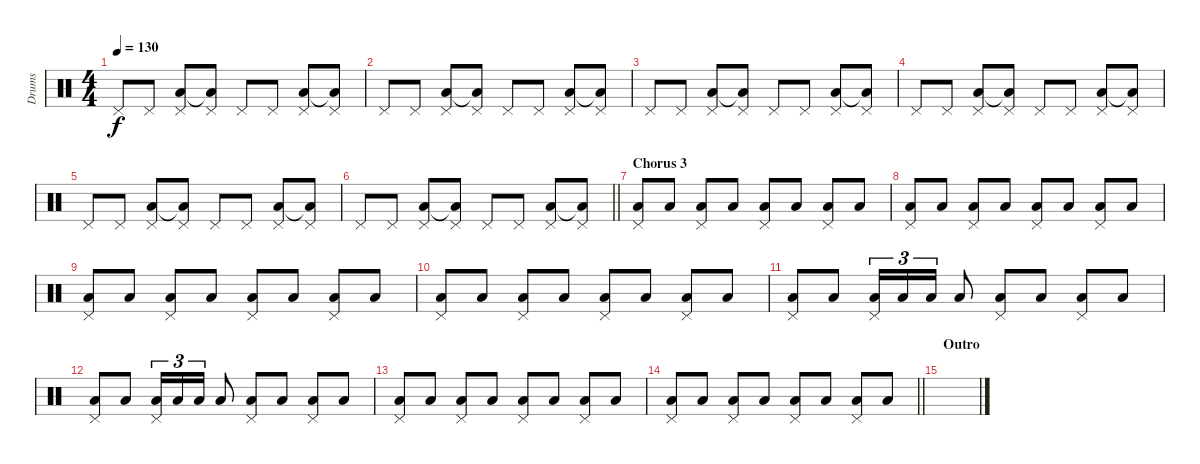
\track ("Drums" "Drums") {instrument percussion}
\staff {score}
\articulation defaults
\ts (4 4)
\tempo 130
\clef neutral
\ks c "Pedal Hi-Hat (hit)".8{dy f} "Pedal Hi-Hat (hit)".8
("Pedal Hi-Hat (hit)" "Low Floor Tom (hit)").8 ("Pedal Hi-Hat (hit)" "Low Floor Tom (hit)"{t}).8 "Pedal Hi-Hat (hit)".8 "Pedal Hi-Hat (hit)".8 ("Pedal Hi-Hat (hit)" "Low Floor Tom (hit)").8 ("Pedal Hi-Hat (hit)" "Low Floor Tom (hit)"{t}).8 |
"Pedal Hi-Hat (hit)".8 "Pedal Hi-Hat (hit)".8 ("Pedal Hi-Hat (hit)" "Low Floor Tom (hit)").8 ("Pedal Hi-Hat (hit)" "Low Floor Tom (hit)"{t}).8 "Pedal Hi-Hat (hit)".8 "Pedal Hi-Hat (hit)".8 ("Pedal Hi-Hat (hit)" "Low Floor Tom (hit)").8 ("Pedal Hi-Hat (hit)" "Low Floor Tom (hit)"{t}).8 |
"Pedal Hi-Hat (hit)".8 "Pedal Hi-Hat (hit)".8 ("Pedal Hi-Hat (hit)" "Low Floor Tom (hit)").8 ("Pedal Hi-Hat (hit)" "Low Floor Tom (hit)"{t}).8 "Pedal Hi-Hat (hit)".8 "Pedal Hi-Hat (hit)".8 ("Pedal Hi-Hat (hit)" "Low Floor Tom (hit)").8 ("Pedal Hi-Hat (hit)" "Low Floor Tom (hit)"{t}).8 |
"Pedal Hi-Hat (hit)".8 "Pedal Hi-Hat (hit)".8 ("Pedal Hi-Hat (hit)" "Low Floor Tom (hit)").8 ("Pedal Hi-Hat (hit)" "Low Floor Tom (hit)"{t}).8 "Pedal Hi-Hat (hit)".8 "Pedal Hi-Hat (hit)".8 ("Pedal Hi-Hat (hit)" "Low Floor Tom (hit)").8 ("Pedal Hi-Hat (hit)" "Low Floor Tom (hit)"{t}).8 |
"Pedal Hi-Hat (hit)".8 "Pedal Hi-Hat (hit)".8 ("Pedal Hi-Hat (hit)" "Low Floor Tom (hit)").8 ("Pedal Hi-Hat (hit)" "Low Floor Tom (hit)"{t}).8 "Pedal Hi-Hat (hit)".8 "Pedal Hi-Hat (hit)".8 ("Pedal Hi-Hat (hit)" "Low Floor Tom (hit)").8 ("Pedal Hi-Hat (hit)" "Low Floor Tom (hit)"{t}).8 |
\barLineRight lightlight "Pedal Hi-Hat (hit)".8 "Pedal Hi-Hat (hit)".8
("Pedal Hi-Hat (hit)" "Low Floor Tom (hit)").8 ("Pedal Hi-Hat (hit)" "Low Floor Tom (hit)"{t}).8 "Pedal Hi-Hat (hit)".8 "Pedal Hi-Hat (hit)".8 ("Pedal Hi-Hat (hit)" "Low Floor Tom (hit)").8 ("Pedal Hi-Hat (hit)" "Low Floor Tom (hit)"{t}).8 |
\section ("" "Chorus 3")
("Pedal Hi-Hat (hit)" "Low Floor Tom (hit)").8 "Low Floor Tom (hit)".8 ("Pedal Hi-Hat (hit)" "Low Floor Tom (hit)").8 "Low Floor Tom (hit)".8 ("Pedal Hi-Hat (hit)" "Low Floor Tom (hit)").8 "Low Floor Tom (hit)".8 ("Pedal Hi-Hat (hit)" "Low Floor Tom (hit)").8 "Low Floor Tom (hit)".8 |
("Pedal Hi-Hat (hit)" "Low Floor Tom (hit)").8 "Low Floor Tom (hit)".8 ("Pedal Hi-Hat (hit)" "Low Floor Tom (hit)").8 "Low Floor Tom (hit)".8 ("Pedal Hi-Hat (hit)" "Low Floor Tom (hit)").8 "Low Floor Tom (hit)".8 ("Pedal Hi-Hat (hit)" "Low Floor Tom (hit)").8 "Low Floor Tom (hit)".8 |
("Pedal Hi-Hat (hit)" "Low Floor Tom (hit)").8 "Low Floor Tom (hit)".8 ("Pedal Hi-Hat (hit)" "Low Floor Tom (hit)").8 "Low Floor Tom (hit)".8 ("Pedal Hi-Hat (hit)" "Low Floor Tom (hit)").8 "Low Floor Tom (hit)".8 ("Pedal Hi-Hat (hit)" "Low Floor Tom (hit)").8 "Low Floor Tom (hit)".8 |
("Pedal Hi-Hat (hit)" "Low Floor Tom (hit)").8 "Low Floor Tom (hit)".8 ("Pedal Hi-Hat (hit)" "Low Floor Tom (hit)").8 "Low Floor Tom (hit)".8 ("Pedal Hi-Hat (hit)" "Low Floor Tom (hit)").8 "Low Floor Tom (hit)".8 ("Pedal Hi-Hat (hit)" "Low Floor Tom (hit)").8 "Low Floor Tom (hit)".8 |
("Pedal Hi-Hat (hit)" "Low Floor Tom (hit)").8 "Low Floor Tom (hit)".8 ("Pedal Hi-Hat (hit)" "Low Floor Tom (hit)").16{tu (3 2)} "Low Floor Tom (hit)".16{tu (3 2)} "Low Floor Tom (hit)".16{tu (3 2)} "Low Floor Tom (hit)".8 ("Pedal Hi-Hat (hit)" "Low Floor Tom (hit)").8 "Low Floor Tom (hit)".8 ("Pedal Hi-Hat (hit)" "Low Floor Tom (hit)").8 "Low Floor Tom (hit)".8 |
("Pedal Hi-Hat (hit)" "Low Floor Tom (hit)").8 "Low Floor Tom (hit)".8 ("Pedal Hi-Hat (hit)" "Low Floor Tom (hit)").16{tu (3 2)} "Low Floor Tom (hit)".16{tu (3 2)} "Low Floor Tom (hit)".16{tu (3 2)} "Low Floor Tom (hit)".8 ("Pedal Hi-Hat (hit)" "Low Floor Tom (hit)").8 "Low Floor Tom (hit)".8 ("Pedal Hi-Hat (hit)" "Low Floor Tom (hit)").8 "Low Floor Tom (hit)".8 |
("Pedal Hi-Hat (hit)" "Low Floor Tom (hit)").8 "Low Floor Tom (hit)".8 ("Pedal Hi-Hat (hit)" "Low Floor Tom (hit)").8 "Low Floor Tom (hit)".8 ("Pedal Hi-Hat (hit)" "Low Floor Tom (hit)").8 "Low Floor Tom (hit)".8 ("Pedal Hi-Hat (hit)" "Low Floor Tom (hit)").8 "Low Floor Tom (hit)".8 |
\barLineRight lightlight
("Pedal Hi-Hat (hit)" "Low Floor Tom (hit)").8 "Low Floor Tom (hit)".8 ("Pedal Hi-Hat (hit)" "Low Floor Tom (hit)").8 "Low Floor Tom (hit)".8 ("Pedal Hi-Hat (hit)" "Low Floor Tom (hit)").8 "Low Floor Tom (hit)".8 ("Pedal Hi-Hat (hit)" "Low Floor Tom (hit)").8 "Low Floor Tom (hit)".8 |
\section ("" "Outro")
